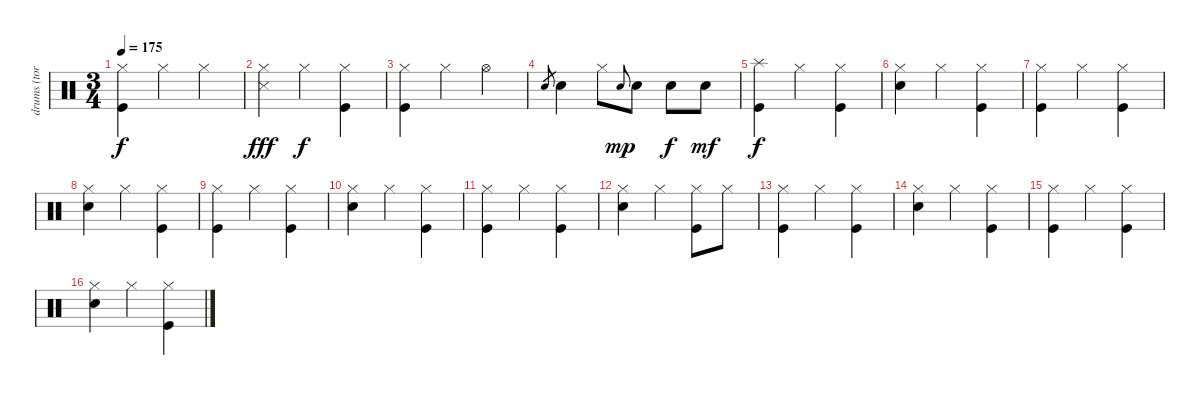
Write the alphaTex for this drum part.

\track ("drums (tora)" "drums (tor") {instrument percussion}
\staff {score}
\articulation defaults
\ts (3 4)
\tempo 175
\clef neutral
\ks c
("Hi-Hat (closed)" "Kick (hit)").4{dy f} "Hi-Hat (closed)".4 "Hi-Hat (closed)".4 |
("Hi-Hat (closed)" "Snare (side stick) 3").4{dy fff} "Hi-Hat (closed)".4{dy f} ("Hi-Hat (closed)" "Kick (hit)").4 |
("Hi-Hat (closed)" "Kick (hit)").4 "Hi-Hat (closed)".4 "Hi-Hat (open)".4 |
"Snare (hit) 2".8{gr} "Snare (hit) 2".4 "Hi-Hat (closed)".8 "Snare (hit) 2".8{gr onbeat dy mp} "Snare (hit) 2".8 "Snare (hit) 2".8{dy f} "Snare (hit) 2".8{dy mf} |
("Splash (hit)" "Kick (hit)").4{dy f} "Hi-Hat (closed)".4 ("Hi-Hat (closed)" "Kick (hit)").4 |
("Hi-Hat (closed)" "Snare (hit) 2").4 "Hi-Hat (closed)".4 ("Hi-Hat (closed)" "Kick (hit)").4 |
("Hi-Hat (closed)" "Kick (hit)").4 "Hi-Hat (closed)".4 ("Hi-Hat (closed)" "Kick (hit)").4 |
("Hi-Hat (closed)" "Snare (hit) 2").4 "Hi-Hat (closed)".4 ("Hi-Hat (closed)" "Kick (hit)").4 |
("Hi-Hat (closed)" "Kick (hit)").4 "Hi-Hat (closed)".4 ("Hi-Hat (closed)" "Kick (hit)").4 |
("Hi-Hat (closed)" "Snare (hit) 2").4 "Hi-Hat (closed)".4 ("Hi-Hat (closed)" "Kick (hit)").4 |
("Hi-Hat (closed)" "Kick (hit)").4 "Hi-Hat (closed)".4 ("Hi-Hat (closed)" "Kick (hit)").4 |
("Hi-Hat (closed)" "Snare (hit) 2").4 "Hi-Hat (closed)".4 ("Hi-Hat (closed)" "Kick (hit)").8 "Hi-Hat (closed)".8 |
("Hi-Hat (closed)" "Kick (hit)").4 "Hi-Hat (closed)".4 ("Hi-Hat (closed)" "Kick (hit)").4 |
("Hi-Hat (closed)" "Snare (hit) 2").4 "Hi-Hat (closed)".4 ("Hi-Hat (closed)" "Kick (hit)").4 |
("Hi-Hat (closed)" "Kick (hit)").4 "Hi-Hat (closed)".4 ("Hi-Hat (closed)" "Kick (hit)").4 |
("Hi-Hat (closed)" "Snare (hit) 2").4 "Hi-Hat (closed)".4 ("Hi-Hat (closed)" "Kick (hit)").4
